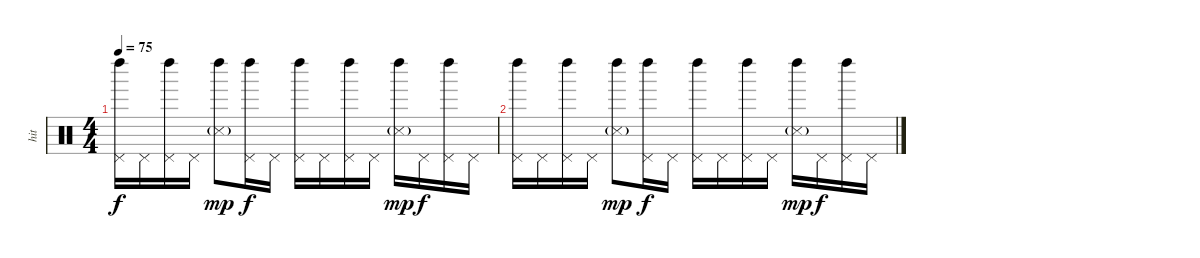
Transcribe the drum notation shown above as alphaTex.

\track ("hit" "hit") {instrument percussion}
\staff {score}
\articulation defaults
\ts (4 4)
\tempo 75
\clef neutral
\ks c
("Pedal Hi-Hat (hit)" "Left Maraca (hit)").16{dy f} "Pedal Hi-Hat (hit)".16 ("Pedal Hi-Hat (hit)" "Left Maraca (hit)").16 "Pedal Hi-Hat (hit)".16 ("Metronome (hit)"{g} "Left Maraca (hit)").8{dy mp} ("Pedal Hi-Hat (hit)" "Left Maraca (hit)").16{dy f} "Pedal Hi-Hat (hit)".16 ("Pedal Hi-Hat (hit)" "Left Maraca (hit)").16 "Pedal Hi-Hat (hit)".16 ("Pedal Hi-Hat (hit)" "Left Maraca (hit)").16 "Pedal Hi-Hat (hit)".16 ("Metronome (hit)"{g} "Left Maraca (hit)").16{dy mp} "Pedal Hi-Hat (hit)".16{dy f} ("Pedal Hi-Hat (hit)" "Left Maraca (hit)").16 "Pedal Hi-Hat (hit)".16 |
("Pedal Hi-Hat (hit)" "Left Maraca (hit)").16 "Pedal Hi-Hat (hit)".16 ("Pedal Hi-Hat (hit)" "Left Maraca (hit)").16 "Pedal Hi-Hat (hit)".16 ("Metronome (hit)"{g} "Left Maraca (hit)").8{dy mp} ("Pedal Hi-Hat (hit)" "Left Maraca (hit)").16{dy f} "Pedal Hi-Hat (hit)".16 ("Pedal Hi-Hat (hit)" "Left Maraca (hit)").16 "Pedal Hi-Hat (hit)".16 ("Pedal Hi-Hat (hit)" "Left Maraca (hit)").16 "Pedal Hi-Hat (hit)".16 ("Metronome (hit)"{g} "Left Maraca (hit)").16{dy mp} "Pedal Hi-Hat (hit)".16{dy f} ("Pedal Hi-Hat (hit)" "Left Maraca (hit)").16 "Pedal Hi-Hat (hit)".16
